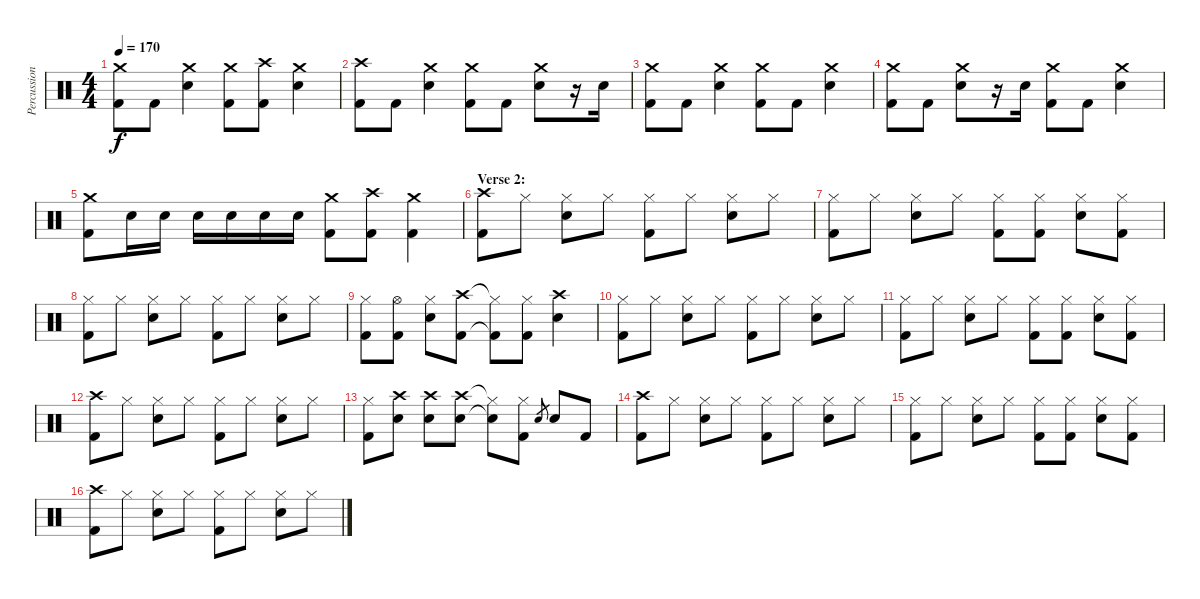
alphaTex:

\track ("Percussion" "Percussion") {instrument percussion}
\staff {score}
\articulation defaults
\ts (4 4)
\tempo 170
\clef neutral
\ks c
("Crash medium (hit)" "Kick (hit) 2").8{dy f} "Kick (hit) 2".8 ("Crash medium (hit)" "Snare (hit) 2").4 ("Crash medium (hit)" "Kick (hit) 2").8 ("Crash high (hit)" "Kick (hit) 2").8 ("Crash medium (hit)" "Snare (hit) 2").4 |
("Crash high (hit)" "Kick (hit) 2").8 "Kick (hit) 2".8 ("Crash medium (hit)" "Snare (hit) 2").4 ("Crash medium (hit)" "Kick (hit) 2").8 "Kick (hit) 2".8 ("Crash medium (hit)" "Snare (hit) 2").8 r.16 "Snare (hit) 2".16 |
("Crash medium (hit)" "Kick (hit) 2").8 "Kick (hit) 2".8 ("Crash medium (hit)" "Snare (hit) 2").4 ("Crash medium (hit)" "Kick (hit) 2").8 "Kick (hit) 2".8 ("Crash medium (hit)" "Snare (hit) 2").4 |
("Crash medium (hit)" "Kick (hit) 2").8 "Kick (hit) 2".8 ("Crash medium (hit)" "Snare (hit) 2").8 r.16 "Snare (hit) 2".16 ("Crash medium (hit)" "Kick (hit) 2").8 "Kick (hit) 2".8 ("Crash medium (hit)" "Snare (hit) 2").4 |
("Crash medium (hit)" "Kick (hit) 2").8 "Snare (hit) 2".16 "Snare (hit) 2".16 "Snare (hit) 2".16 "Snare (hit) 2".16 "Snare (hit) 2".16 "Snare (hit) 2".16 ("Crash medium (hit)" "Kick (hit) 2").8 ("Crash high (hit)" "Kick (hit) 2").8 ("Crash medium (hit)" "Kick (hit) 2").4 |
\section ("" "Verse 2:")
("Crash high (hit)" "Kick (hit) 2").8 "Hi-Hat (closed)".8 ("Hi-Hat (closed)" "Snare (hit) 2").8 "Hi-Hat (closed)".8 ("Hi-Hat (closed)" "Kick (hit) 2").8 "Hi-Hat (closed)".8 ("Hi-Hat (closed)" "Snare (hit) 2").8 "Hi-Hat (closed)".8 |
("Hi-Hat (closed)" "Kick (hit) 2").8 "Hi-Hat (closed)".8 ("Hi-Hat (closed)" "Snare (hit) 2").8 "Hi-Hat (closed)".8 ("Hi-Hat (closed)" "Kick (hit) 2").8 ("Hi-Hat (closed)" "Kick (hit) 2").8 ("Hi-Hat (closed)" "Snare (hit) 2").8 ("Hi-Hat (closed)" "Kick (hit) 2").8 |
("Hi-Hat (closed)" "Kick (hit) 2").8 "Hi-Hat (closed)".8 ("Hi-Hat (closed)" "Snare (hit) 2").8 "Hi-Hat (closed)".8 ("Hi-Hat (closed)" "Kick (hit) 2").8 "Hi-Hat (closed)".8 ("Hi-Hat (closed)" "Snare (hit) 2").8 "Hi-Hat (closed)".8 |
("Hi-Hat (closed)" "Kick (hit) 2").8 ("Hi-Hat (open)" "Kick (hit) 2").8 ("Hi-Hat (closed)" "Snare (hit) 2").8 ("Crash high (hit)" "Kick (hit) 2").8 ("Hi-Hat (closed)"{t} "Kick (hit) 2"{t}).8 ("Hi-Hat (closed)" "Kick (hit) 2").8 ("Crash high (hit)" "Snare (hit) 2").4 |
("Hi-Hat (closed)" "Kick (hit) 2").8 "Hi-Hat (closed)".8 ("Hi-Hat (closed)" "Snare (hit) 2").8 "Hi-Hat (closed)".8 ("Hi-Hat (closed)" "Kick (hit) 2").8 "Hi-Hat (closed)".8 ("Hi-Hat (closed)" "Snare (hit) 2").8 "Hi-Hat (closed)".8 |
("Hi-Hat (closed)" "Kick (hit) 2").8 "Hi-Hat (closed)".8 ("Hi-Hat (closed)" "Snare (hit) 2").8 "Hi-Hat (closed)".8 ("Hi-Hat (closed)" "Kick (hit) 2").8 ("Hi-Hat (closed)" "Kick (hit) 2").8 ("Hi-Hat (closed)" "Snare (hit) 2").8 ("Hi-Hat (closed)" "Kick (hit) 2").8 |
("Crash high (hit)" "Kick (hit) 2").8 "Hi-Hat (closed)".8 ("Hi-Hat (closed)" "Snare (hit) 2").8 "Hi-Hat (closed)".8 ("Hi-Hat (closed)" "Kick (hit) 2").8 "Hi-Hat (closed)".8 ("Hi-Hat (closed)" "Snare (hit) 2").8 "Hi-Hat (closed)".8 |
("Hi-Hat (closed)" "Kick (hit) 2").8 ("Crash high (hit)" "Snare (hit) 2").8 ("Crash high (hit)" "Snare (hit) 2").8 ("Crash high (hit)" "Snare (hit) 2").8 ("Hi-Hat (closed)"{t} "Snare (hit)"{t}).8 ("Hi-Hat (closed)" "Kick (hit) 2").8 "Snare (hit) 2".8{gr} "Snare (hit) 2".8 "Kick (hit) 2".8 |
("Crash high (hit)" "Kick (hit) 2").8 "Hi-Hat (closed)".8 ("Hi-Hat (closed)" "Snare (hit) 2").8 "Hi-Hat (closed)".8 ("Hi-Hat (closed)" "Kick (hit) 2").8 "Hi-Hat (closed)".8 ("Hi-Hat (closed)" "Snare (hit) 2").8 "Hi-Hat (closed)".8 |
("Hi-Hat (closed)" "Kick (hit) 2").8 "Hi-Hat (closed)".8 ("Hi-Hat (closed)" "Snare (hit) 2").8 "Hi-Hat (closed)".8 ("Hi-Hat (closed)" "Kick (hit) 2").8 ("Hi-Hat (closed)" "Kick (hit) 2").8 ("Hi-Hat (closed)" "Snare (hit) 2").8 ("Hi-Hat (closed)" "Kick (hit) 2").8 |
("Crash high (hit)" "Kick (hit) 2").8 "Hi-Hat (closed)".8 ("Hi-Hat (closed)" "Snare (hit) 2").8 "Hi-Hat (closed)".8 ("Hi-Hat (closed)" "Kick (hit) 2").8 "Hi-Hat (closed)".8 ("Hi-Hat (closed)" "Snare (hit) 2").8 "Hi-Hat (closed)".8
